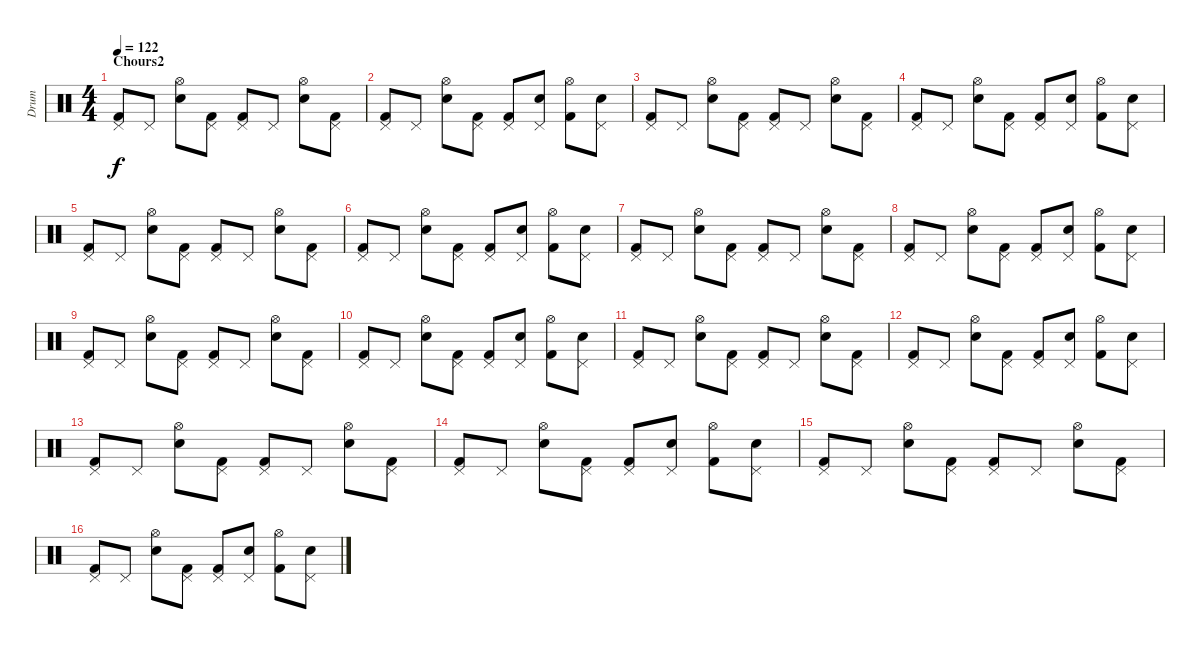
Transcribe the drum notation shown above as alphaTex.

\track ("Drum" "Drum") {instrument percussion}
\staff {score}
\articulation defaults
\ts (4 4)
\section ("" "Chours2")
\tempo 122
\clef neutral
\ks c
("Pedal Hi-Hat (hit)" "Kick (hit) 2").8{dy f} "Pedal Hi-Hat (hit)".8 ("Hi-Hat (open)" "Electric Snare (hit)").8 ("Pedal Hi-Hat (hit)" "Kick (hit) 2").8 ("Pedal Hi-Hat (hit)" "Kick (hit) 2").8 "Pedal Hi-Hat (hit)".8 ("Hi-Hat (open)" "Electric Snare (hit)").8 ("Pedal Hi-Hat (hit)" "Kick (hit) 2").8 |
("Pedal Hi-Hat (hit)" "Kick (hit) 2").8 "Pedal Hi-Hat (hit)".8 ("Hi-Hat (open)" "Electric Snare (hit)").8 ("Pedal Hi-Hat (hit)" "Kick (hit) 2").8 ("Pedal Hi-Hat (hit)" "Kick (hit) 2").8 ("Pedal Hi-Hat (hit)" "Electric Snare (hit)").8 ("Hi-Hat (open)" "Kick (hit) 2").8 ("Pedal Hi-Hat (hit)" "Electric Snare (hit)").8 |
("Pedal Hi-Hat (hit)" "Kick (hit) 2").8 "Pedal Hi-Hat (hit)".8 ("Hi-Hat (open)" "Electric Snare (hit)").8 ("Pedal Hi-Hat (hit)" "Kick (hit) 2").8 ("Pedal Hi-Hat (hit)" "Kick (hit) 2").8 "Pedal Hi-Hat (hit)".8 ("Hi-Hat (open)" "Electric Snare (hit)").8 ("Pedal Hi-Hat (hit)" "Kick (hit) 2").8 |
("Pedal Hi-Hat (hit)" "Kick (hit) 2").8 "Pedal Hi-Hat (hit)".8 ("Hi-Hat (open)" "Electric Snare (hit)").8 ("Pedal Hi-Hat (hit)" "Kick (hit) 2").8 ("Pedal Hi-Hat (hit)" "Kick (hit) 2").8 ("Pedal Hi-Hat (hit)" "Electric Snare (hit)").8 ("Hi-Hat (open)" "Kick (hit) 2").8 ("Pedal Hi-Hat (hit)" "Electric Snare (hit)").8 |
("Pedal Hi-Hat (hit)" "Kick (hit) 2").8 "Pedal Hi-Hat (hit)".8 ("Hi-Hat (open)" "Electric Snare (hit)").8 ("Pedal Hi-Hat (hit)" "Kick (hit) 2").8 ("Pedal Hi-Hat (hit)" "Kick (hit) 2").8 "Pedal Hi-Hat (hit)".8 ("Hi-Hat (open)" "Electric Snare (hit)").8 ("Pedal Hi-Hat (hit)" "Kick (hit) 2").8 |
("Pedal Hi-Hat (hit)" "Kick (hit) 2").8 "Pedal Hi-Hat (hit)".8 ("Hi-Hat (open)" "Electric Snare (hit)").8 ("Pedal Hi-Hat (hit)" "Kick (hit) 2").8 ("Pedal Hi-Hat (hit)" "Kick (hit) 2").8 ("Pedal Hi-Hat (hit)" "Electric Snare (hit)").8 ("Hi-Hat (open)" "Kick (hit) 2").8 ("Pedal Hi-Hat (hit)" "Electric Snare (hit)").8 |
("Pedal Hi-Hat (hit)" "Kick (hit) 2").8 "Pedal Hi-Hat (hit)".8 ("Hi-Hat (open)" "Electric Snare (hit)").8 ("Pedal Hi-Hat (hit)" "Kick (hit) 2").8 ("Pedal Hi-Hat (hit)" "Kick (hit) 2").8 "Pedal Hi-Hat (hit)".8 ("Hi-Hat (open)" "Electric Snare (hit)").8 ("Pedal Hi-Hat (hit)" "Kick (hit) 2").8 |
("Pedal Hi-Hat (hit)" "Kick (hit) 2").8 "Pedal Hi-Hat (hit)".8 ("Hi-Hat (open)" "Electric Snare (hit)").8 ("Pedal Hi-Hat (hit)" "Kick (hit) 2").8 ("Pedal Hi-Hat (hit)" "Kick (hit) 2").8 ("Pedal Hi-Hat (hit)" "Electric Snare (hit)").8 ("Hi-Hat (open)" "Kick (hit) 2").8 ("Pedal Hi-Hat (hit)" "Electric Snare (hit)").8 |
("Pedal Hi-Hat (hit)" "Kick (hit) 2").8 "Pedal Hi-Hat (hit)".8 ("Hi-Hat (open)" "Electric Snare (hit)").8 ("Pedal Hi-Hat (hit)" "Kick (hit) 2").8 ("Pedal Hi-Hat (hit)" "Kick (hit) 2").8 "Pedal Hi-Hat (hit)".8 ("Hi-Hat (open)" "Electric Snare (hit)").8 ("Pedal Hi-Hat (hit)" "Kick (hit) 2").8 |
("Pedal Hi-Hat (hit)" "Kick (hit) 2").8 "Pedal Hi-Hat (hit)".8 ("Hi-Hat (open)" "Electric Snare (hit)").8 ("Pedal Hi-Hat (hit)" "Kick (hit) 2").8 ("Pedal Hi-Hat (hit)" "Kick (hit) 2").8 ("Pedal Hi-Hat (hit)" "Electric Snare (hit)").8 ("Hi-Hat (open)" "Kick (hit) 2").8 ("Pedal Hi-Hat (hit)" "Electric Snare (hit)").8 |
("Pedal Hi-Hat (hit)" "Kick (hit) 2").8 "Pedal Hi-Hat (hit)".8 ("Hi-Hat (open)" "Electric Snare (hit)").8 ("Pedal Hi-Hat (hit)" "Kick (hit) 2").8 ("Pedal Hi-Hat (hit)" "Kick (hit) 2").8 "Pedal Hi-Hat (hit)".8 ("Hi-Hat (open)" "Electric Snare (hit)").8 ("Pedal Hi-Hat (hit)" "Kick (hit) 2").8 |
("Pedal Hi-Hat (hit)" "Kick (hit) 2").8 "Pedal Hi-Hat (hit)".8 ("Hi-Hat (open)" "Electric Snare (hit)").8 ("Pedal Hi-Hat (hit)" "Kick (hit) 2").8 ("Pedal Hi-Hat (hit)" "Kick (hit) 2").8 ("Pedal Hi-Hat (hit)" "Electric Snare (hit)").8 ("Hi-Hat (open)" "Kick (hit) 2").8 ("Pedal Hi-Hat (hit)" "Electric Snare (hit)").8 |
("Pedal Hi-Hat (hit)" "Kick (hit) 2").8 "Pedal Hi-Hat (hit)".8 ("Hi-Hat (open)" "Electric Snare (hit)").8 ("Pedal Hi-Hat (hit)" "Kick (hit) 2").8 ("Pedal Hi-Hat (hit)" "Kick (hit) 2").8 "Pedal Hi-Hat (hit)".8 ("Hi-Hat (open)" "Electric Snare (hit)").8 ("Pedal Hi-Hat (hit)" "Kick (hit) 2").8 |
("Pedal Hi-Hat (hit)" "Kick (hit) 2").8 "Pedal Hi-Hat (hit)".8 ("Hi-Hat (open)" "Electric Snare (hit)").8 ("Pedal Hi-Hat (hit)" "Kick (hit) 2").8 ("Pedal Hi-Hat (hit)" "Kick (hit) 2").8 ("Pedal Hi-Hat (hit)" "Electric Snare (hit)").8 ("Hi-Hat (open)" "Kick (hit) 2").8 ("Pedal Hi-Hat (hit)" "Electric Snare (hit)").8 |
("Pedal Hi-Hat (hit)" "Kick (hit) 2").8 "Pedal Hi-Hat (hit)".8 ("Hi-Hat (open)" "Electric Snare (hit)").8 ("Pedal Hi-Hat (hit)" "Kick (hit) 2").8 ("Pedal Hi-Hat (hit)" "Kick (hit) 2").8 "Pedal Hi-Hat (hit)".8 ("Hi-Hat (open)" "Electric Snare (hit)").8 ("Pedal Hi-Hat (hit)" "Kick (hit) 2").8 |
("Pedal Hi-Hat (hit)" "Kick (hit) 2").8 "Pedal Hi-Hat (hit)".8 ("Hi-Hat (open)" "Electric Snare (hit)").8 ("Pedal Hi-Hat (hit)" "Kick (hit) 2").8 ("Pedal Hi-Hat (hit)" "Kick (hit) 2").8 ("Pedal Hi-Hat (hit)" "Electric Snare (hit)").8 ("Hi-Hat (open)" "Kick (hit) 2").8 ("Pedal Hi-Hat (hit)" "Electric Snare (hit)").8
